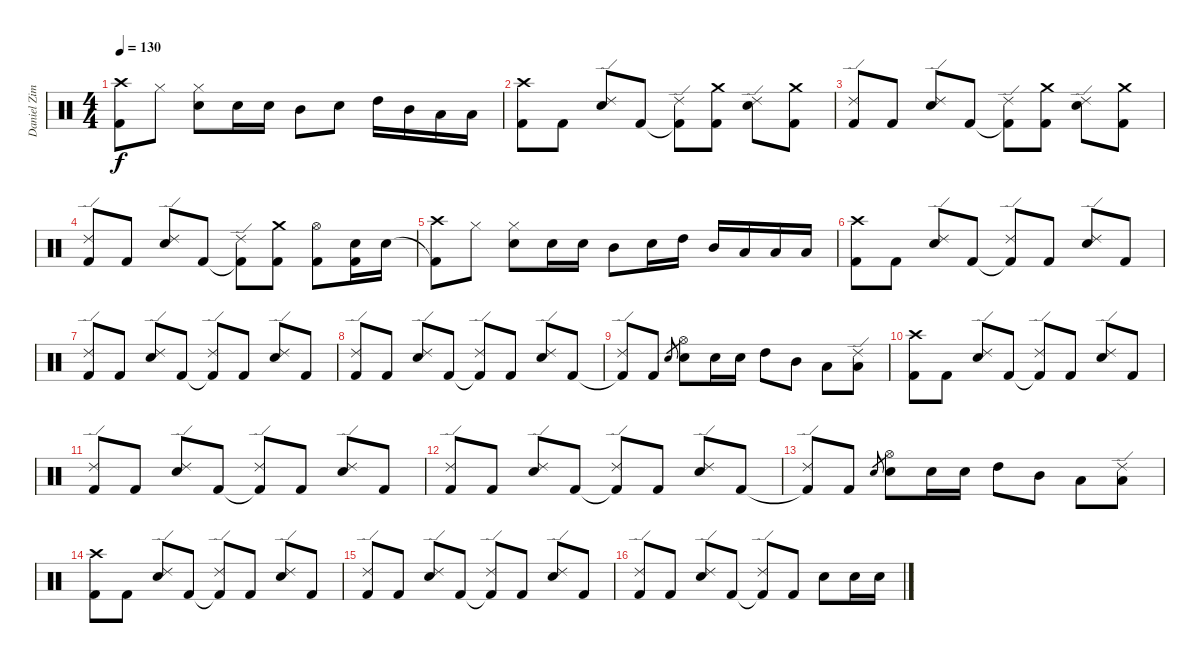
\track ("Daniel Zimmermann" "Daniel Zim") {instrument percussion}
\staff {score}
\articulation defaults
\ts (4 4)
\tempo 130
\clef neutral
\ks c
("Kick (hit) 2"{t} "Crash high (hit)"{t}).8{dy f} "Hi-Hat (closed)".8 ("Electric Snare (hit)" "Hi-Hat (closed)").8 "Electric Snare (hit)".16 "Electric Snare (hit)".16 "Mid Tom (hit)".8 "Electric Snare (hit)".8 "High Tom (hit)".16 "Mid Tom (hit)".16 "Low Tom (hit)".16 "Low Floor Tom (hit)".16 |
("Kick (hit) 2" "Crash high (hit)").8 "Kick (hit) 2".8 ("Electric Snare (hit)" "Ride (edge) 2").8 "Kick (hit) 2".8 ("Kick (hit) 2"{t} "Ride (edge) 2").8 ("Kick (hit) 2" "Crash medium (hit)").8 ("Electric Snare (hit)" "Ride (edge) 2").8 ("Kick (hit) 2" "Crash medium (hit)").8 |
("Kick (hit) 2" "Ride (edge) 2").8 "Kick (hit) 2".8 ("Electric Snare (hit)" "Ride (edge) 2").8 "Kick (hit) 2".8 ("Kick (hit) 2"{t} "Ride (edge) 2").8 ("Kick (hit) 2" "Crash medium (hit)").8 ("Electric Snare (hit)" "Ride (edge) 2").8 ("Kick (hit) 2" "Crash medium (hit)").8 |
("Kick (hit) 2" "Ride (edge) 2").8 "Kick (hit) 2".8 ("Electric Snare (hit)" "Ride (edge) 2").8 "Kick (hit) 2".8 ("Kick (hit) 2"{t} "Ride (edge) 2").8 ("Kick (hit) 2" "Crash medium (hit)").8 ("Kick (hit) 2" "Hi-Hat (open)").8 ("Kick (hit) 2" "Electric Snare (hit)").16 "Electric Snare (hit)".16 |
("Kick (hit) 2"{t} "Crash high (hit)").8 "Hi-Hat (closed)".8 ("Electric Snare (hit)" "Hi-Hat (closed)").8 "Electric Snare (hit)".16 "Electric Snare (hit)".16 "Mid Tom (hit)".8 "Electric Snare (hit)".16 "High Tom (hit)".16 "Mid Tom (hit)".16 "Low Tom (hit)".16 "Low Floor Tom (hit)".16 "Low Floor Tom (hit)".16 |
("Kick (hit) 2" "Crash high (hit)").8 "Kick (hit) 2".8 ("Electric Snare (hit)" "Ride (edge) 2").8 "Kick (hit) 2".8 ("Kick (hit) 2"{t} "Ride (edge) 2").8 "Kick (hit) 2".8 ("Electric Snare (hit)" "Ride (edge) 2").8 "Kick (hit) 2".8 |
("Kick (hit) 2" "Ride (edge) 2").8 "Kick (hit) 2".8 ("Electric Snare (hit)" "Ride (edge) 2").8 "Kick (hit) 2".8 ("Kick (hit) 2"{t} "Ride (edge) 2").8 "Kick (hit) 2".8 ("Electric Snare (hit)" "Ride (edge) 2").8 "Kick (hit) 2".8 |
("Kick (hit) 2" "Ride (edge) 2").8 "Kick (hit) 2".8 ("Electric Snare (hit)" "Ride (edge) 2").8 "Kick (hit) 2".8 ("Kick (hit) 2"{t} "Ride (edge) 2").8 "Kick (hit) 2".8 ("Electric Snare (hit)" "Ride (edge) 2").8 "Kick (hit) 2".8 |
("Kick (hit) 2"{t} "Ride (edge) 2").8 "Kick (hit) 2".8 "Electric Snare (hit)".8{gr} ("Electric Snare (hit)" "Hi-Hat (open)").8 "Electric Snare (hit)".16 "Electric Snare (hit)".16 "High Tom (hit)".8 "Mid Tom (hit)".8 "Low Tom (hit)".8 ("Low Floor Tom (hit)" "Ride (edge) 2").8 |
("Kick (hit) 2" "Crash high (hit)").8 "Kick (hit) 2".8 ("Electric Snare (hit)" "Ride (edge) 2").8 "Kick (hit) 2".8 ("Kick (hit) 2"{t} "Ride (edge) 2").8 "Kick (hit) 2".8 ("Electric Snare (hit)" "Ride (edge) 2").8 "Kick (hit) 2".8 |
("Kick (hit) 2" "Ride (edge) 2").8 "Kick (hit) 2".8 ("Electric Snare (hit)" "Ride (edge) 2").8 "Kick (hit) 2".8 ("Kick (hit) 2"{t} "Ride (edge) 2").8 "Kick (hit) 2".8 ("Electric Snare (hit)" "Ride (edge) 2").8 "Kick (hit) 2".8 |
("Kick (hit) 2" "Ride (edge) 2").8 "Kick (hit) 2".8 ("Electric Snare (hit)" "Ride (edge) 2").8 "Kick (hit) 2".8 ("Kick (hit) 2"{t} "Ride (edge) 2").8 "Kick (hit) 2".8 ("Electric Snare (hit)" "Ride (edge) 2").8 "Kick (hit) 2".8 |
("Kick (hit) 2"{t} "Ride (edge) 2").8 "Kick (hit) 2".8 "Electric Snare (hit)".8{gr} ("Electric Snare (hit)" "Hi-Hat (open)").8 "Electric Snare (hit)".16 "Electric Snare (hit)".16 "High Tom (hit)".8 "Mid Tom (hit)".8 "Low Tom (hit)".8 ("Low Floor Tom (hit)" "Ride (edge) 2").8 |
("Kick (hit) 2" "Crash high (hit)").8 "Kick (hit) 2".8 ("Electric Snare (hit)" "Ride (edge) 2").8 "Kick (hit) 2".8 ("Kick (hit) 2"{t} "Ride (edge) 2").8 "Kick (hit) 2".8 ("Electric Snare (hit)" "Ride (edge) 2").8 "Kick (hit) 2".8 |
("Kick (hit) 2" "Ride (edge) 2").8 "Kick (hit) 2".8 ("Electric Snare (hit)" "Ride (edge) 2").8 "Kick (hit) 2".8 ("Kick (hit) 2"{t} "Ride (edge) 2").8 "Kick (hit) 2".8 ("Electric Snare (hit)" "Ride (edge) 2").8 "Kick (hit) 2".8 |
("Kick (hit) 2" "Ride (edge) 2").8 "Kick (hit) 2".8 ("Electric Snare (hit)" "Ride (edge) 2").8 "Kick (hit) 2".8 ("Kick (hit) 2"{t} "Ride (edge) 2").8 "Kick (hit) 2".8 "Electric Snare (hit)".8 "Electric Snare (hit)".16 "Electric Snare (hit)".16
